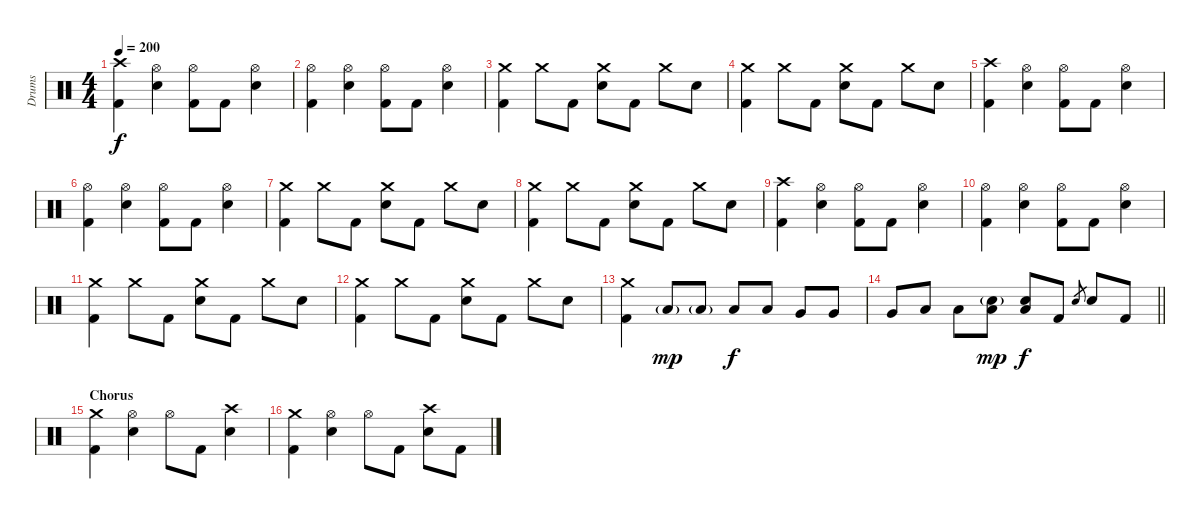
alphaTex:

\track ("Drums" "Drums") {instrument percussion}
\staff {score}
\articulation defaults
\ts (4 4)
\tempo 200
\clef neutral
\ks c
("Crash high (hit)" "Kick (hit) 2").4{dy f} ("Hi-Hat (open)" "Electric Snare (hit)").4 ("Hi-Hat (open)" "Kick (hit) 2").8 "Kick (hit) 2".8 ("Hi-Hat (open)" "Electric Snare (hit)").4 |
("Hi-Hat (open)" "Kick (hit) 2").4 ("Hi-Hat (open)" "Electric Snare (hit)").4 ("Hi-Hat (open)" "Kick (hit) 2").8 "Kick (hit) 2".8 ("Hi-Hat (open)" "Electric Snare (hit)").4 |
("Crash medium (hit)" "Kick (hit) 2").4 "Crash medium (hit)".8 "Kick (hit) 2".8 ("Crash medium (hit)" "Electric Snare (hit)").8 "Kick (hit) 2".8 "Crash medium (hit)".8 "Electric Snare (hit)".8 |
("Crash medium (hit)" "Kick (hit) 2").4 "Crash medium (hit)".8 "Kick (hit) 2".8 ("Crash medium (hit)" "Electric Snare (hit)").8 "Kick (hit) 2".8 "Crash medium (hit)".8 "Electric Snare (hit)".8 |
("Crash high (hit)" "Kick (hit) 2").4 ("Hi-Hat (open)" "Electric Snare (hit)").4 ("Hi-Hat (open)" "Kick (hit) 2").8 "Kick (hit) 2".8 ("Hi-Hat (open)" "Electric Snare (hit)").4 |
("Hi-Hat (open)" "Kick (hit) 2").4 ("Hi-Hat (open)" "Electric Snare (hit)").4 ("Hi-Hat (open)" "Kick (hit) 2").8 "Kick (hit) 2".8 ("Hi-Hat (open)" "Electric Snare (hit)").4 |
("Crash medium (hit)" "Kick (hit) 2").4 "Crash medium (hit)".8 "Kick (hit) 2".8 ("Crash medium (hit)" "Electric Snare (hit)").8 "Kick (hit) 2".8 "Crash medium (hit)".8 "Electric Snare (hit)".8 |
("Crash medium (hit)" "Kick (hit) 2").4 "Crash medium (hit)".8 "Kick (hit) 2".8 ("Crash medium (hit)" "Electric Snare (hit)").8 "Kick (hit) 2".8 "Crash medium (hit)".8 "Electric Snare (hit)".8 |
("Crash high (hit)" "Kick (hit) 2").4 ("Hi-Hat (open)" "Electric Snare (hit)").4 ("Hi-Hat (open)" "Kick (hit) 2").8 "Kick (hit) 2".8 ("Hi-Hat (open)" "Electric Snare (hit)").4 |
("Hi-Hat (open)" "Kick (hit) 2").4 ("Hi-Hat (open)" "Electric Snare (hit)").4 ("Hi-Hat (open)" "Kick (hit) 2").8 "Kick (hit) 2".8 ("Hi-Hat (open)" "Electric Snare (hit)").4 |
("Crash medium (hit)" "Kick (hit) 2").4 "Crash medium (hit)".8 "Kick (hit) 2".8 ("Crash medium (hit)" "Electric Snare (hit)").8 "Kick (hit) 2".8 "Crash medium (hit)".8 "Electric Snare (hit)".8 |
("Crash medium (hit)" "Kick (hit) 2").4 "Crash medium (hit)".8 "Kick (hit) 2".8 ("Crash medium (hit)" "Electric Snare (hit)").8 "Kick (hit) 2".8 "Crash medium (hit)".8 "Electric Snare (hit)".8 |
("Crash medium (hit)" "Kick (hit) 2").4 "Low Floor Tom (hit)"{g}.8{dy mp} "Low Floor Tom (hit)"{g}.8 "Low Floor Tom (hit)".8{dy f} "Low Floor Tom (hit)".8 "Very Low Tom (hit)".8 "Very Low Tom (hit)".8 |
\barLineRight lightlight "Very Low Tom (hit)".8 "Low Tom (hit)".8 "Low Tom (hit)".8
("Electric Snare (hit)"{g} "Low Tom (hit)").8{dy mp} ("Electric Snare (hit)" "Low Tom (hit)").8{dy f} "Kick (hit) 2".8 "Electric Snare (hit)".8{gr} "Electric Snare (hit)".8 "Kick (hit) 2".8 |
\section ("" "Chorus")
("Crash medium (hit)" "Kick (hit) 2").4 ("Hi-Hat (open)" "Electric Snare (hit)").4 "Hi-Hat (open)".8 "Kick (hit) 2".8 ("Crash high (hit)" "Electric Snare (hit)").4 |
("Crash medium (hit)" "Kick (hit) 2").4 ("Hi-Hat (open)" "Electric Snare (hit)").4 "Hi-Hat (open)".8 "Kick (hit) 2".8 ("Crash high (hit)" "Electric Snare (hit)").8 "Kick (hit) 2".8
